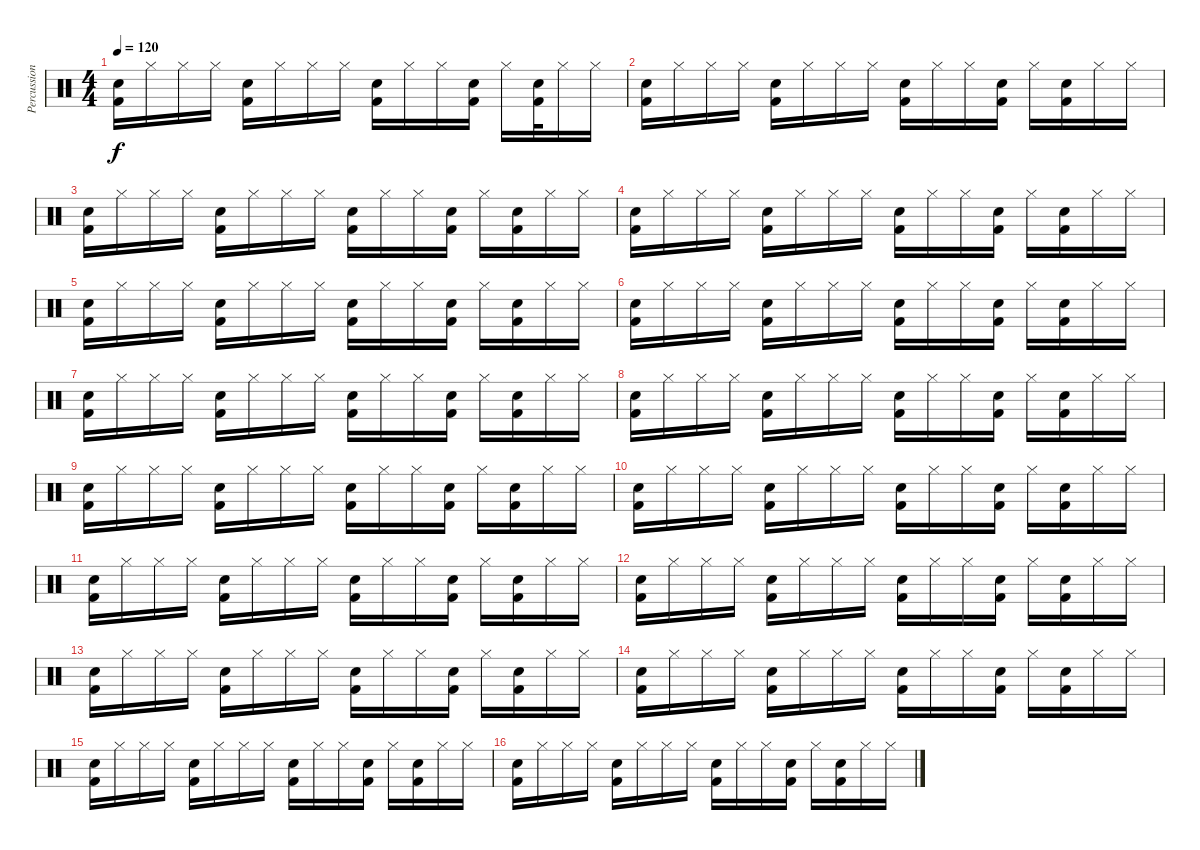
\track ("Percussion" "Percussion") {instrument percussion}
\staff {score}
\articulation defaults
\ts (4 4)
\tempo 120
\clef neutral
\ks c
("Electric Snare (hit)" "Kick (hit) 2").16{dy f} "Hi-Hat (closed)".16 "Hi-Hat (closed)".16 "Hi-Hat (closed)".16 ("Electric Snare (hit)" "Kick (hit) 2").16 "Hi-Hat (closed)".16 "Hi-Hat (closed)".16 "Hi-Hat (closed)".16 ("Electric Snare (hit)" "Kick (hit) 2").16 "Hi-Hat (closed)".16 "Hi-Hat (closed)".16 ("Electric Snare (hit)" "Kick (hit) 2").16 "Hi-Hat (closed)".16 ("Electric Snare (hit)" "Kick (hit) 2").32 "Hi-Hat (closed)".16 "Hi-Hat (closed)".16 |
("Electric Snare (hit)" "Kick (hit) 2").16 "Hi-Hat (closed)".16 "Hi-Hat (closed)".16 "Hi-Hat (closed)".16 ("Electric Snare (hit)" "Kick (hit) 2").16 "Hi-Hat (closed)".16 "Hi-Hat (closed)".16 "Hi-Hat (closed)".16 ("Electric Snare (hit)" "Kick (hit) 2").16 "Hi-Hat (closed)".16 "Hi-Hat (closed)".16 ("Electric Snare (hit)" "Kick (hit) 2").16 "Hi-Hat (closed)".16 ("Electric Snare (hit)" "Kick (hit) 2").16 "Hi-Hat (closed)".16 "Hi-Hat (closed)".16 |
("Electric Snare (hit)" "Kick (hit) 2").16 "Hi-Hat (closed)".16 "Hi-Hat (closed)".16 "Hi-Hat (closed)".16 ("Electric Snare (hit)" "Kick (hit) 2").16 "Hi-Hat (closed)".16 "Hi-Hat (closed)".16 "Hi-Hat (closed)".16 ("Electric Snare (hit)" "Kick (hit) 2").16 "Hi-Hat (closed)".16 "Hi-Hat (closed)".16 ("Electric Snare (hit)" "Kick (hit) 2").16 "Hi-Hat (closed)".16 ("Electric Snare (hit)" "Kick (hit) 2").16 "Hi-Hat (closed)".16 "Hi-Hat (closed)".16 |
("Electric Snare (hit)" "Kick (hit) 2").16 "Hi-Hat (closed)".16 "Hi-Hat (closed)".16 "Hi-Hat (closed)".16 ("Electric Snare (hit)" "Kick (hit) 2").16 "Hi-Hat (closed)".16 "Hi-Hat (closed)".16 "Hi-Hat (closed)".16 ("Electric Snare (hit)" "Kick (hit) 2").16 "Hi-Hat (closed)".16 "Hi-Hat (closed)".16 ("Electric Snare (hit)" "Kick (hit) 2").16 "Hi-Hat (closed)".16 ("Electric Snare (hit)" "Kick (hit) 2").16 "Hi-Hat (closed)".16 "Hi-Hat (closed)".16 |
("Electric Snare (hit)" "Kick (hit) 2").16 "Hi-Hat (closed)".16 "Hi-Hat (closed)".16 "Hi-Hat (closed)".16 ("Electric Snare (hit)" "Kick (hit) 2").16 "Hi-Hat (closed)".16 "Hi-Hat (closed)".16 "Hi-Hat (closed)".16 ("Electric Snare (hit)" "Kick (hit) 2").16 "Hi-Hat (closed)".16 "Hi-Hat (closed)".16 ("Electric Snare (hit)" "Kick (hit) 2").16 "Hi-Hat (closed)".16 ("Electric Snare (hit)" "Kick (hit) 2").16 "Hi-Hat (closed)".16 "Hi-Hat (closed)".16 |
("Electric Snare (hit)" "Kick (hit) 2").16 "Hi-Hat (closed)".16 "Hi-Hat (closed)".16 "Hi-Hat (closed)".16 ("Electric Snare (hit)" "Kick (hit) 2").16 "Hi-Hat (closed)".16 "Hi-Hat (closed)".16 "Hi-Hat (closed)".16 ("Electric Snare (hit)" "Kick (hit) 2").16 "Hi-Hat (closed)".16 "Hi-Hat (closed)".16 ("Electric Snare (hit)" "Kick (hit) 2").16 "Hi-Hat (closed)".16 ("Electric Snare (hit)" "Kick (hit) 2").16 "Hi-Hat (closed)".16 "Hi-Hat (closed)".16 |
("Electric Snare (hit)" "Kick (hit) 2").16 "Hi-Hat (closed)".16 "Hi-Hat (closed)".16 "Hi-Hat (closed)".16 ("Electric Snare (hit)" "Kick (hit) 2").16 "Hi-Hat (closed)".16 "Hi-Hat (closed)".16 "Hi-Hat (closed)".16 ("Electric Snare (hit)" "Kick (hit) 2").16 "Hi-Hat (closed)".16 "Hi-Hat (closed)".16 ("Electric Snare (hit)" "Kick (hit) 2").16 "Hi-Hat (closed)".16 ("Electric Snare (hit)" "Kick (hit) 2").16 "Hi-Hat (closed)".16 "Hi-Hat (closed)".16 |
("Electric Snare (hit)" "Kick (hit) 2").16 "Hi-Hat (closed)".16 "Hi-Hat (closed)".16 "Hi-Hat (closed)".16 ("Electric Snare (hit)" "Kick (hit) 2").16 "Hi-Hat (closed)".16 "Hi-Hat (closed)".16 "Hi-Hat (closed)".16 ("Electric Snare (hit)" "Kick (hit) 2").16 "Hi-Hat (closed)".16 "Hi-Hat (closed)".16 ("Electric Snare (hit)" "Kick (hit) 2").16 "Hi-Hat (closed)".16 ("Electric Snare (hit)" "Kick (hit) 2").16 "Hi-Hat (closed)".16 "Hi-Hat (closed)".16 |
("Electric Snare (hit)" "Kick (hit) 2").16 "Hi-Hat (closed)".16 "Hi-Hat (closed)".16 "Hi-Hat (closed)".16 ("Electric Snare (hit)" "Kick (hit) 2").16 "Hi-Hat (closed)".16 "Hi-Hat (closed)".16 "Hi-Hat (closed)".16 ("Electric Snare (hit)" "Kick (hit) 2").16 "Hi-Hat (closed)".16 "Hi-Hat (closed)".16 ("Electric Snare (hit)" "Kick (hit) 2").16 "Hi-Hat (closed)".16 ("Electric Snare (hit)" "Kick (hit) 2").16 "Hi-Hat (closed)".16 "Hi-Hat (closed)".16 |
("Electric Snare (hit)" "Kick (hit) 2").16 "Hi-Hat (closed)".16 "Hi-Hat (closed)".16 "Hi-Hat (closed)".16 ("Electric Snare (hit)" "Kick (hit) 2").16 "Hi-Hat (closed)".16 "Hi-Hat (closed)".16 "Hi-Hat (closed)".16 ("Electric Snare (hit)" "Kick (hit) 2").16 "Hi-Hat (closed)".16 "Hi-Hat (closed)".16 ("Electric Snare (hit)" "Kick (hit) 2").16 "Hi-Hat (closed)".16 ("Electric Snare (hit)" "Kick (hit) 2").16 "Hi-Hat (closed)".16 "Hi-Hat (closed)".16 |
("Electric Snare (hit)" "Kick (hit) 2").16 "Hi-Hat (closed)".16 "Hi-Hat (closed)".16 "Hi-Hat (closed)".16 ("Electric Snare (hit)" "Kick (hit) 2").16 "Hi-Hat (closed)".16 "Hi-Hat (closed)".16 "Hi-Hat (closed)".16 ("Electric Snare (hit)" "Kick (hit) 2").16 "Hi-Hat (closed)".16 "Hi-Hat (closed)".16 ("Electric Snare (hit)" "Kick (hit) 2").16 "Hi-Hat (closed)".16 ("Electric Snare (hit)" "Kick (hit) 2").16 "Hi-Hat (closed)".16 "Hi-Hat (closed)".16 |
("Electric Snare (hit)" "Kick (hit) 2").16 "Hi-Hat (closed)".16 "Hi-Hat (closed)".16 "Hi-Hat (closed)".16 ("Electric Snare (hit)" "Kick (hit) 2").16 "Hi-Hat (closed)".16 "Hi-Hat (closed)".16 "Hi-Hat (closed)".16 ("Electric Snare (hit)" "Kick (hit) 2").16 "Hi-Hat (closed)".16 "Hi-Hat (closed)".16 ("Electric Snare (hit)" "Kick (hit) 2").16 "Hi-Hat (closed)".16 ("Electric Snare (hit)" "Kick (hit) 2").16 "Hi-Hat (closed)".16 "Hi-Hat (closed)".16 |
("Electric Snare (hit)" "Kick (hit) 2").16 "Hi-Hat (closed)".16 "Hi-Hat (closed)".16 "Hi-Hat (closed)".16 ("Electric Snare (hit)" "Kick (hit) 2").16 "Hi-Hat (closed)".16 "Hi-Hat (closed)".16 "Hi-Hat (closed)".16 ("Electric Snare (hit)" "Kick (hit) 2").16 "Hi-Hat (closed)".16 "Hi-Hat (closed)".16 ("Electric Snare (hit)" "Kick (hit) 2").16 "Hi-Hat (closed)".16 ("Electric Snare (hit)" "Kick (hit) 2").16 "Hi-Hat (closed)".16 "Hi-Hat (closed)".16 |
("Electric Snare (hit)" "Kick (hit) 2").16 "Hi-Hat (closed)".16 "Hi-Hat (closed)".16 "Hi-Hat (closed)".16 ("Electric Snare (hit)" "Kick (hit) 2").16 "Hi-Hat (closed)".16 "Hi-Hat (closed)".16 "Hi-Hat (closed)".16 ("Electric Snare (hit)" "Kick (hit) 2").16 "Hi-Hat (closed)".16 "Hi-Hat (closed)".16 ("Electric Snare (hit)" "Kick (hit) 2").16 "Hi-Hat (closed)".16 ("Electric Snare (hit)" "Kick (hit) 2").16 "Hi-Hat (closed)".16 "Hi-Hat (closed)".16 |
("Electric Snare (hit)" "Kick (hit) 2").16 "Hi-Hat (closed)".16 "Hi-Hat (closed)".16 "Hi-Hat (closed)".16 ("Electric Snare (hit)" "Kick (hit) 2").16 "Hi-Hat (closed)".16 "Hi-Hat (closed)".16 "Hi-Hat (closed)".16 ("Electric Snare (hit)" "Kick (hit) 2").16 "Hi-Hat (closed)".16 "Hi-Hat (closed)".16 ("Electric Snare (hit)" "Kick (hit) 2").16 "Hi-Hat (closed)".16 ("Electric Snare (hit)" "Kick (hit) 2").16 "Hi-Hat (closed)".16 "Hi-Hat (closed)".16 |
("Electric Snare (hit)" "Kick (hit) 2").16 "Hi-Hat (closed)".16 "Hi-Hat (closed)".16 "Hi-Hat (closed)".16 ("Electric Snare (hit)" "Kick (hit) 2").16 "Hi-Hat (closed)".16 "Hi-Hat (closed)".16 "Hi-Hat (closed)".16 ("Electric Snare (hit)" "Kick (hit) 2").16 "Hi-Hat (closed)".16 "Hi-Hat (closed)".16 ("Electric Snare (hit)" "Kick (hit) 2").16 "Hi-Hat (closed)".16 ("Electric Snare (hit)" "Kick (hit) 2").16 "Hi-Hat (closed)".16 "Hi-Hat (closed)".16
